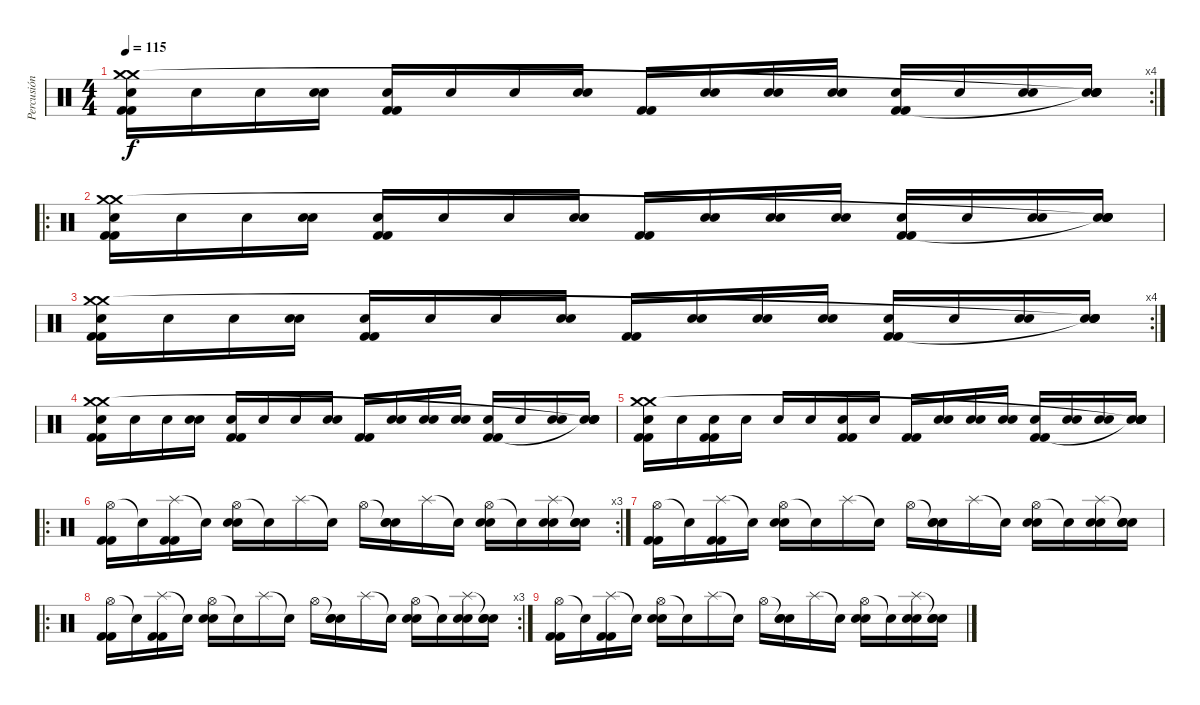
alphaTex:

\track ("Percusión" "Percusión") {instrument percussion}
\staff {score}
\articulation defaults
\rc 4
\ts (4 4)
\tempo 115
\clef neutral
\ks c
("Electric Snare (hit)" "Kick (hit) 2" "Kick (hit) 2" "Crash medium (hit)" "Crash medium (hit)").16{dy f} "Snare (hit)".16 "Snare (hit)".16 ("Electric Snare (hit)" "Snare (hit)").16 ("Electric Snare (hit)" "Kick (hit) 2" "Kick (hit) 2").16 "Snare (hit)".16 "Snare (hit)".16 ("Electric Snare (hit)" "Snare (hit)").16 ("Kick (hit) 2" "Kick (hit) 2").16 ("Electric Snare (hit)" "Snare (hit)").16 ("Electric Snare (hit)" "Snare (hit)").16 ("Electric Snare (hit)" "Snare (hit)").16 ("Electric Snare (hit)" "Kick (hit) 2" "Kick (hit) 2").16 "Snare (hit)".16 ("Electric Snare (hit)" "Snare (hit)").16 ("Electric Snare (hit)" "Snare (hit)" "Snare (hit)"{t} "Snare (hit)"{t}).16 |
\ro
("Electric Snare (hit)" "Kick (hit) 2" "Kick (hit) 2" "Crash medium (hit)" "Crash medium (hit)").16 "Snare (hit)".16 "Snare (hit)".16 ("Electric Snare (hit)" "Snare (hit)").16 ("Electric Snare (hit)" "Kick (hit) 2" "Kick (hit) 2").16 "Snare (hit)".16 "Snare (hit)".16 ("Electric Snare (hit)" "Snare (hit)").16 ("Kick (hit) 2" "Kick (hit) 2").16 ("Electric Snare (hit)" "Snare (hit)").16 ("Electric Snare (hit)" "Snare (hit)").16 ("Electric Snare (hit)" "Snare (hit)").16 ("Electric Snare (hit)" "Kick (hit) 2" "Kick (hit) 2").16 "Snare (hit)".16 ("Electric Snare (hit)" "Snare (hit)").16 ("Electric Snare (hit)" "Snare (hit)" "Snare (hit)"{t} "Snare (hit)"{t}).16 |
\rc 4
("Electric Snare (hit)" "Kick (hit) 2" "Kick (hit) 2" "Crash medium (hit)" "Crash medium (hit)").16 "Snare (hit)".16 "Snare (hit)".16 ("Electric Snare (hit)" "Snare (hit)").16 ("Electric Snare (hit)" "Kick (hit) 2" "Kick (hit) 2").16 "Snare (hit)".16 "Snare (hit)".16 ("Electric Snare (hit)" "Snare (hit)").16 ("Kick (hit) 2" "Kick (hit) 2").16 ("Electric Snare (hit)" "Snare (hit)").16 ("Electric Snare (hit)" "Snare (hit)").16 ("Electric Snare (hit)" "Snare (hit)").16 ("Electric Snare (hit)" "Kick (hit) 2" "Kick (hit) 2").16 "Snare (hit)".16 ("Electric Snare (hit)" "Snare (hit)").16 ("Electric Snare (hit)" "Snare (hit)" "Snare (hit)"{t} "Snare (hit)"{t}).16 |
("Electric Snare (hit)" "Kick (hit) 2" "Kick (hit) 2" "Crash medium (hit)" "Crash medium (hit)").16 "Snare (hit)".16 "Snare (hit)".16 ("Electric Snare (hit)" "Snare (hit)").16 ("Electric Snare (hit)" "Kick (hit) 2" "Kick (hit) 2").16 "Snare (hit)".16 "Snare (hit)".16 ("Electric Snare (hit)" "Snare (hit)").16 ("Kick (hit) 2" "Kick (hit) 2").16 ("Electric Snare (hit)" "Snare (hit)").16 ("Electric Snare (hit)" "Snare (hit)").16 ("Electric Snare (hit)" "Snare (hit)").16 ("Electric Snare (hit)" "Kick (hit) 2" "Kick (hit) 2").16 "Snare (hit)".16 ("Electric Snare (hit)" "Snare (hit)").16 ("Electric Snare (hit)" "Snare (hit)" "Snare (hit)"{t} "Snare (hit)"{t}).16 |
("Electric Snare (hit)" "Kick (hit) 2" "Kick (hit) 2" "Crash medium (hit)" "Crash medium (hit)").16 "Snare (hit)".16 ("Electric Snare (hit)" "Kick (hit) 2" "Kick (hit) 2").16 "Snare (hit)".16 "Snare (hit)".16 "Snare (hit)".16 ("Electric Snare (hit)" "Kick (hit) 2" "Kick (hit) 2").16 "Snare (hit)".16 ("Kick (hit) 2" "Kick (hit) 2").16 ("Electric Snare (hit)" "Snare (hit)").16 ("Electric Snare (hit)" "Snare (hit)").16 ("Electric Snare (hit)" "Snare (hit)").16 ("Electric Snare (hit)" "Kick (hit) 2" "Kick (hit) 2").16 ("Electric Snare (hit)" "Snare (hit)").16 ("Electric Snare (hit)" "Snare (hit)").16 ("Electric Snare (hit)" "Snare (hit)" "Snare (hit)"{t} "Snare (hit)"{t}).16 |
\ro
\rc 3
("Hi-Hat (open)" "Kick (hit) 2" "Kick (hit) 2").16 "Snare (hit)"{t}.16 ("Splash (hit)" "Kick (hit) 2" "Kick (hit) 2").16 "Snare (hit)"{t}.16 ("Hi-Hat (open)" "Electric Snare (hit)" "Electric Snare (hit)").16 "Snare (hit)"{t}.16 "Splash (hit)".16 "Snare (hit)"{t}.16 "Hi-Hat (open)".16 ("Snare (hit)"{t} "Electric Snare (hit)" "Electric Snare (hit)").16 "Splash (hit)".16 "Snare (hit)"{t}.16 ("Hi-Hat (open)" "Electric Snare (hit)" "Electric Snare (hit)").16 "Snare (hit)"{t}.16 ("Splash (hit)" "Electric Snare (hit)" "Electric Snare (hit)").16 ("Snare (hit)"{t} "Electric Snare (hit)" "Electric Snare (hit)").16 |
("Hi-Hat (open)" "Kick (hit) 2" "Kick (hit) 2").16 "Snare (hit)"{t}.16 ("Splash (hit)" "Kick (hit) 2" "Kick (hit) 2").16 "Snare (hit)"{t}.16 ("Hi-Hat (open)" "Electric Snare (hit)" "Electric Snare (hit)").16 "Snare (hit)"{t}.16 "Splash (hit)".16 "Snare (hit)"{t}.16 "Hi-Hat (open)".16 ("Snare (hit)"{t} "Electric Snare (hit)" "Electric Snare (hit)").16 "Splash (hit)".16 "Snare (hit)"{t}.16 ("Hi-Hat (open)" "Electric Snare (hit)" "Electric Snare (hit)").16 "Snare (hit)"{t}.16 ("Splash (hit)" "Electric Snare (hit)" "Electric Snare (hit)").16 ("Snare (hit)"{t} "Electric Snare (hit)" "Electric Snare (hit)").16 |
\ro
\rc 3
("Hi-Hat (open)" "Kick (hit) 2" "Kick (hit) 2").16 "Snare (hit)"{t}.16 ("Splash (hit)" "Kick (hit) 2" "Kick (hit) 2").16 "Snare (hit)"{t}.16 ("Hi-Hat (open)" "Electric Snare (hit)" "Electric Snare (hit)").16 "Snare (hit)"{t}.16 "Splash (hit)".16 "Snare (hit)"{t}.16 "Hi-Hat (open)".16 ("Snare (hit)"{t} "Electric Snare (hit)" "Electric Snare (hit)").16 "Splash (hit)".16 "Snare (hit)"{t}.16 ("Hi-Hat (open)" "Electric Snare (hit)" "Electric Snare (hit)").16 "Snare (hit)"{t}.16 ("Splash (hit)" "Electric Snare (hit)" "Electric Snare (hit)").16 ("Snare (hit)"{t} "Electric Snare (hit)" "Electric Snare (hit)").16 |
("Hi-Hat (open)" "Kick (hit) 2" "Kick (hit) 2").16 "Snare (hit)"{t}.16 ("Splash (hit)" "Kick (hit) 2" "Kick (hit) 2").16 "Snare (hit)"{t}.16 ("Hi-Hat (open)" "Electric Snare (hit)" "Electric Snare (hit)").16 "Snare (hit)"{t}.16 "Splash (hit)".16 "Snare (hit)"{t}.16 "Hi-Hat (open)".16 ("Snare (hit)"{t} "Electric Snare (hit)" "Electric Snare (hit)").16 "Splash (hit)".16 "Snare (hit)"{t}.16 ("Hi-Hat (open)" "Electric Snare (hit)" "Electric Snare (hit)").16 "Snare (hit)"{t}.16 ("Splash (hit)" "Electric Snare (hit)" "Electric Snare (hit)").16 ("Snare (hit)"{t} "Electric Snare (hit)" "Electric Snare (hit)").16
